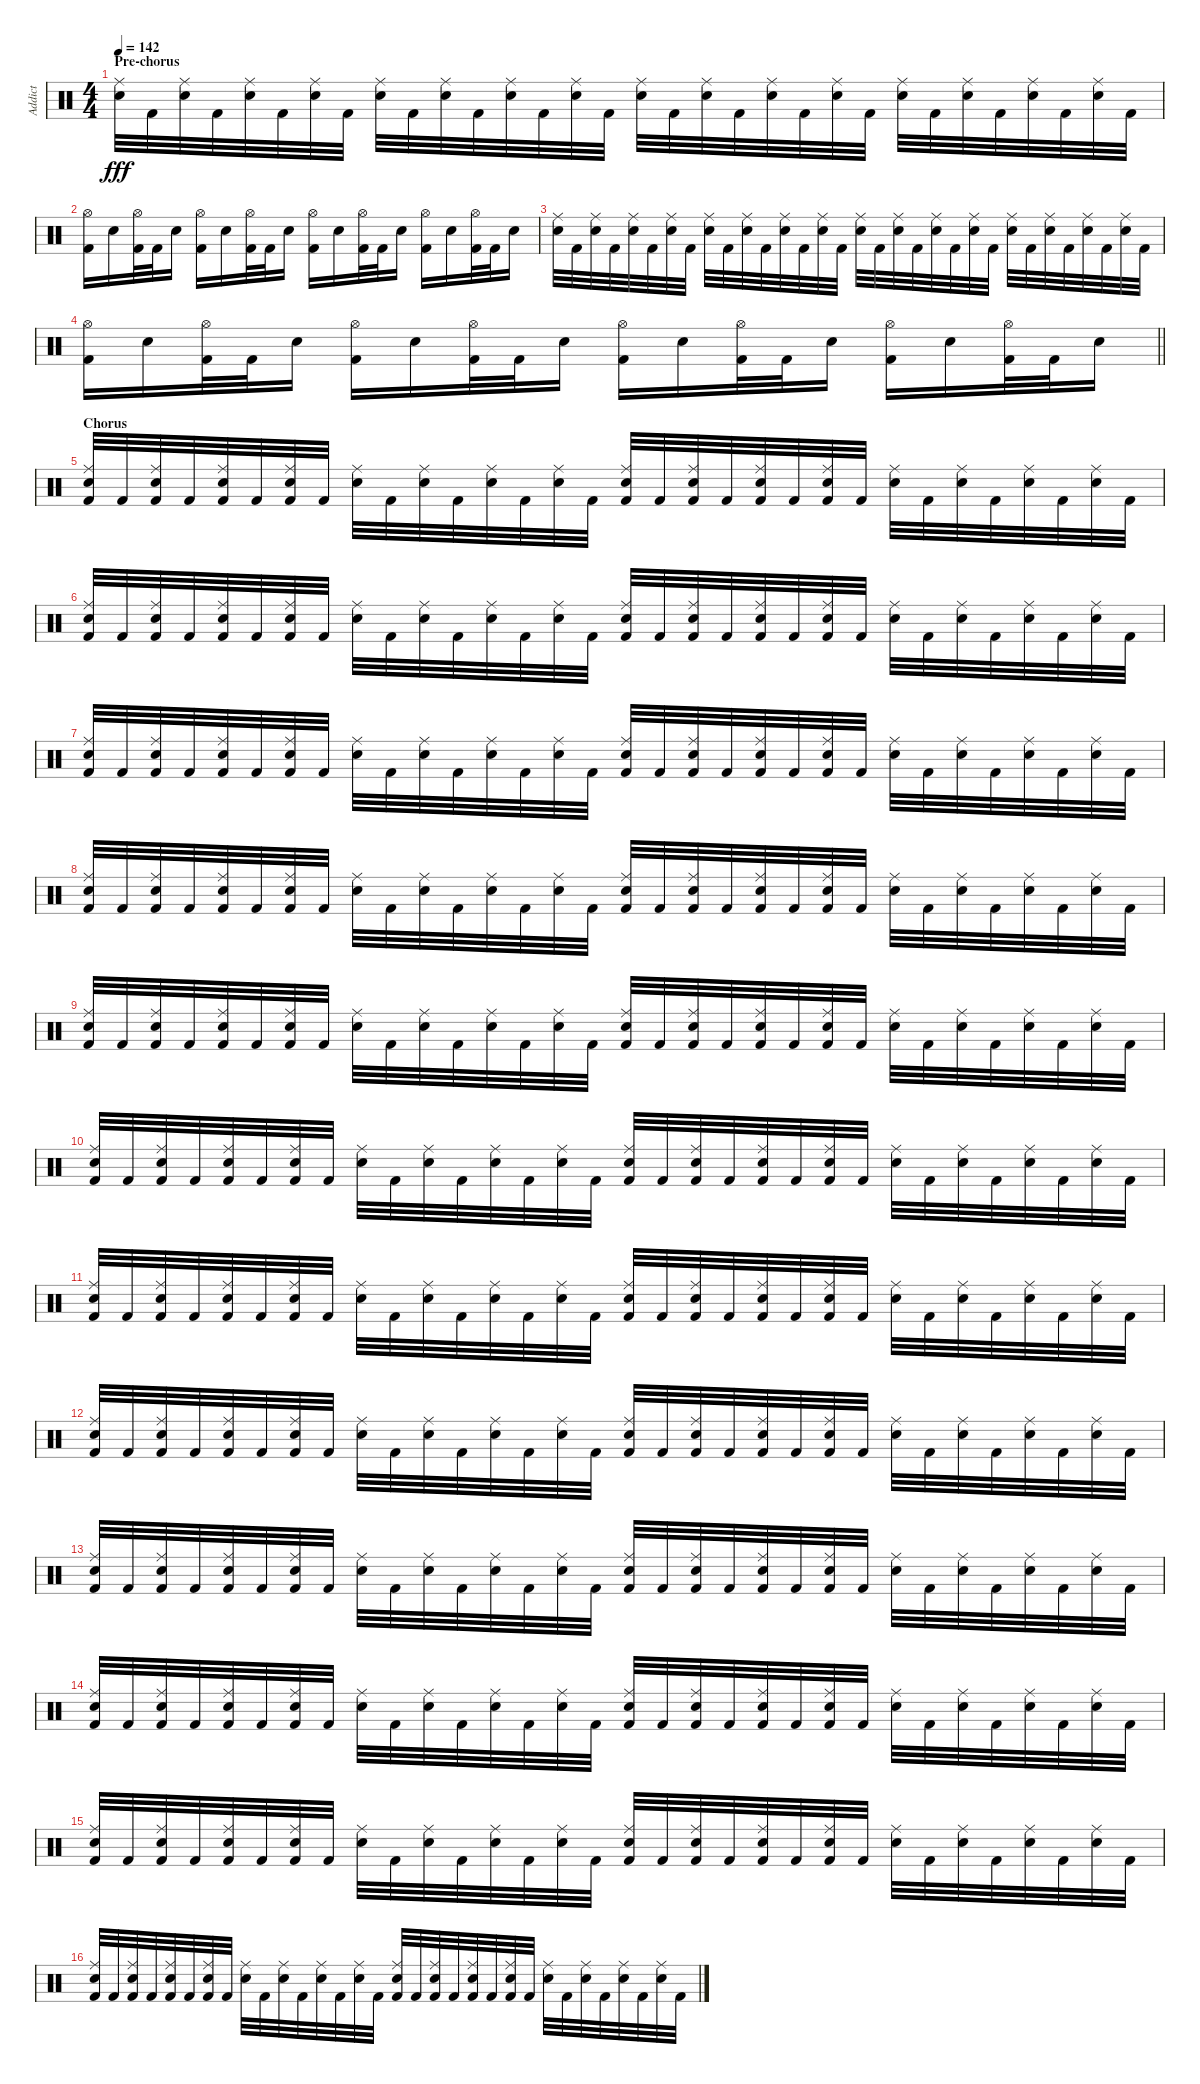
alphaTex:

\track ("Addict" "Addict") {instrument percussion}
\staff {score}
\articulation defaults
\ts (4 4)
\section ("" "Pre-chorus")
\tempo 142
\clef neutral
\ks c
("Snare (hit) 2" "Ride (middle)").32{dy fff} "Kick (hit) 2".32 ("Snare (hit) 2" "Ride (middle)").32 "Kick (hit) 2".32 ("Snare (hit) 2" "Ride (middle)").32 "Kick (hit) 2".32 ("Snare (hit) 2" "Ride (middle)").32 "Kick (hit) 2".32 ("Snare (hit) 2" "Ride (middle)").32 "Kick (hit) 2".32 ("Snare (hit) 2" "Ride (middle)").32 "Kick (hit) 2".32 ("Snare (hit) 2" "Ride (middle)").32 "Kick (hit) 2".32 ("Snare (hit) 2" "Ride (middle)").32 "Kick (hit) 2".32 ("Snare (hit) 2" "Ride (middle)").32 "Kick (hit) 2".32 ("Snare (hit) 2" "Ride (middle)").32 "Kick (hit) 2".32 ("Snare (hit) 2" "Ride (middle)").32 "Kick (hit) 2".32 ("Snare (hit) 2" "Ride (middle)").32 "Kick (hit) 2".32 ("Snare (hit) 2" "Ride (middle)").32 "Kick (hit) 2".32 ("Snare (hit) 2" "Ride (middle)").32 "Kick (hit) 2".32 ("Snare (hit) 2" "Ride (middle)").32 "Kick (hit) 2".32 ("Snare (hit) 2" "Ride (middle)").32 "Kick (hit) 2".32 |
("Kick (hit) 2" "Hi-Hat (open)").16 "Snare (hit) 2".16 ("Kick (hit) 2" "Hi-Hat (open)").32 "Kick (hit) 2".32 "Snare (hit) 2".16 ("Kick (hit) 2" "Hi-Hat (open)").16 "Snare (hit) 2".16 ("Kick (hit) 2" "Hi-Hat (open)").32 "Kick (hit) 2".32 "Snare (hit) 2".16 ("Kick (hit) 2" "Hi-Hat (open)").16 "Snare (hit) 2".16 ("Kick (hit) 2" "Hi-Hat (open)").32 "Kick (hit) 2".32 "Snare (hit) 2".16 ("Kick (hit) 2" "Hi-Hat (open)").16 "Snare (hit) 2".16 ("Kick (hit) 2" "Hi-Hat (open)").32 "Kick (hit) 2".32 "Snare (hit) 2".16 |
("Snare (hit) 2" "Ride (middle)").32 "Kick (hit) 2".32 ("Snare (hit) 2" "Ride (middle)").32 "Kick (hit) 2".32 ("Snare (hit) 2" "Ride (middle)").32 "Kick (hit) 2".32 ("Snare (hit) 2" "Ride (middle)").32 "Kick (hit) 2".32 ("Snare (hit) 2" "Ride (middle)").32 "Kick (hit) 2".32 ("Snare (hit) 2" "Ride (middle)").32 "Kick (hit) 2".32 ("Snare (hit) 2" "Ride (middle)").32 "Kick (hit) 2".32 ("Snare (hit) 2" "Ride (middle)").32 "Kick (hit) 2".32 ("Snare (hit) 2" "Ride (middle)").32 "Kick (hit) 2".32 ("Snare (hit) 2" "Ride (middle)").32 "Kick (hit) 2".32 ("Snare (hit) 2" "Ride (middle)").32 "Kick (hit) 2".32 ("Snare (hit) 2" "Ride (middle)").32 "Kick (hit) 2".32 ("Snare (hit) 2" "Ride (middle)").32 "Kick (hit) 2".32 ("Snare (hit) 2" "Ride (middle)").32 "Kick (hit) 2".32 ("Snare (hit) 2" "Ride (middle)").32 "Kick (hit) 2".32 ("Snare (hit) 2" "Ride (middle)").32 "Kick (hit) 2".32 |
\barLineRight lightlight
("Kick (hit) 2" "Hi-Hat (open)").16 "Snare (hit) 2".16 ("Kick (hit) 2" "Hi-Hat (open)").32 "Kick (hit) 2".32 "Snare (hit) 2".16 ("Kick (hit) 2" "Hi-Hat (open)").16 "Snare (hit) 2".16 ("Kick (hit) 2" "Hi-Hat (open)").32 "Kick (hit) 2".32 "Snare (hit) 2".16 ("Kick (hit) 2" "Hi-Hat (open)").16 "Snare (hit) 2".16 ("Kick (hit) 2" "Hi-Hat (open)").32 "Kick (hit) 2".32 "Snare (hit) 2".16 ("Kick (hit) 2" "Hi-Hat (open)").16 "Snare (hit) 2".16 ("Kick (hit) 2" "Hi-Hat (open)").32 "Kick (hit) 2".32 "Snare (hit) 2".16 |
\section ("" "Chorus")
("Kick (hit) 2" "Snare (hit) 2" "Ride (middle)").32 "Kick (hit) 2".32 ("Kick (hit) 2" "Snare (hit) 2" "Ride (middle)").32 "Kick (hit) 2".32 ("Kick (hit) 2" "Snare (hit) 2" "Ride (middle)").32 "Kick (hit) 2".32 ("Kick (hit) 2" "Snare (hit) 2" "Ride (middle)").32 "Kick (hit) 2".32 ("Snare (hit) 2" "Ride (middle)").32 "Kick (hit) 2".32 ("Snare (hit) 2" "Ride (middle)").32 "Kick (hit) 2".32 ("Snare (hit) 2" "Ride (middle)").32 "Kick (hit) 2".32 ("Snare (hit) 2" "Ride (middle)").32 "Kick (hit) 2".32 ("Kick (hit) 2" "Snare (hit) 2" "Ride (middle)").32 "Kick (hit) 2".32 ("Kick (hit) 2" "Snare (hit) 2" "Ride (middle)").32 "Kick (hit) 2".32 ("Kick (hit) 2" "Snare (hit) 2" "Ride (middle)").32 "Kick (hit) 2".32 ("Kick (hit) 2" "Snare (hit) 2" "Ride (middle)").32 "Kick (hit) 2".32 ("Snare (hit) 2" "Ride (middle)").32 "Kick (hit) 2".32 ("Snare (hit) 2" "Ride (middle)").32 "Kick (hit) 2".32 ("Snare (hit) 2" "Ride (middle)").32 "Kick (hit) 2".32 ("Snare (hit) 2" "Ride (middle)").32 "Kick (hit) 2".32 |
("Kick (hit) 2" "Snare (hit) 2" "Ride (middle)").32 "Kick (hit) 2".32 ("Kick (hit) 2" "Snare (hit) 2" "Ride (middle)").32 "Kick (hit) 2".32 ("Kick (hit) 2" "Snare (hit) 2" "Ride (middle)").32 "Kick (hit) 2".32 ("Kick (hit) 2" "Snare (hit) 2" "Ride (middle)").32 "Kick (hit) 2".32 ("Snare (hit) 2" "Ride (middle)").32 "Kick (hit) 2".32 ("Snare (hit) 2" "Ride (middle)").32 "Kick (hit) 2".32 ("Snare (hit) 2" "Ride (middle)").32 "Kick (hit) 2".32 ("Snare (hit) 2" "Ride (middle)").32 "Kick (hit) 2".32 ("Kick (hit) 2" "Snare (hit) 2" "Ride (middle)").32 "Kick (hit) 2".32 ("Kick (hit) 2" "Snare (hit) 2" "Ride (middle)").32 "Kick (hit) 2".32 ("Kick (hit) 2" "Snare (hit) 2" "Ride (middle)").32 "Kick (hit) 2".32 ("Kick (hit) 2" "Snare (hit) 2" "Ride (middle)").32 "Kick (hit) 2".32 ("Snare (hit) 2" "Ride (middle)").32 "Kick (hit) 2".32 ("Snare (hit) 2" "Ride (middle)").32 "Kick (hit) 2".32 ("Snare (hit) 2" "Ride (middle)").32 "Kick (hit) 2".32 ("Snare (hit) 2" "Ride (middle)").32 "Kick (hit) 2".32 |
("Kick (hit) 2" "Snare (hit) 2" "Ride (middle)").32 "Kick (hit) 2".32 ("Kick (hit) 2" "Snare (hit) 2" "Ride (middle)").32 "Kick (hit) 2".32 ("Kick (hit) 2" "Snare (hit) 2" "Ride (middle)").32 "Kick (hit) 2".32 ("Kick (hit) 2" "Snare (hit) 2" "Ride (middle)").32 "Kick (hit) 2".32 ("Snare (hit) 2" "Ride (middle)").32 "Kick (hit) 2".32 ("Snare (hit) 2" "Ride (middle)").32 "Kick (hit) 2".32 ("Snare (hit) 2" "Ride (middle)").32 "Kick (hit) 2".32 ("Snare (hit) 2" "Ride (middle)").32 "Kick (hit) 2".32 ("Kick (hit) 2" "Snare (hit) 2" "Ride (middle)").32 "Kick (hit) 2".32 ("Kick (hit) 2" "Snare (hit) 2" "Ride (middle)").32 "Kick (hit) 2".32 ("Kick (hit) 2" "Snare (hit) 2" "Ride (middle)").32 "Kick (hit) 2".32 ("Kick (hit) 2" "Snare (hit) 2" "Ride (middle)").32 "Kick (hit) 2".32 ("Snare (hit) 2" "Ride (middle)").32 "Kick (hit) 2".32 ("Snare (hit) 2" "Ride (middle)").32 "Kick (hit) 2".32 ("Snare (hit) 2" "Ride (middle)").32 "Kick (hit) 2".32 ("Snare (hit) 2" "Ride (middle)").32 "Kick (hit) 2".32 |
("Kick (hit) 2" "Snare (hit) 2" "Ride (middle)").32 "Kick (hit) 2".32 ("Kick (hit) 2" "Snare (hit) 2" "Ride (middle)").32 "Kick (hit) 2".32 ("Kick (hit) 2" "Snare (hit) 2" "Ride (middle)").32 "Kick (hit) 2".32 ("Kick (hit) 2" "Snare (hit) 2" "Ride (middle)").32 "Kick (hit) 2".32 ("Snare (hit) 2" "Ride (middle)").32 "Kick (hit) 2".32 ("Snare (hit) 2" "Ride (middle)").32 "Kick (hit) 2".32 ("Snare (hit) 2" "Ride (middle)").32 "Kick (hit) 2".32 ("Snare (hit) 2" "Ride (middle)").32 "Kick (hit) 2".32 ("Kick (hit) 2" "Snare (hit) 2" "Ride (middle)").32 "Kick (hit) 2".32 ("Kick (hit) 2" "Snare (hit) 2" "Ride (middle)").32 "Kick (hit) 2".32 ("Kick (hit) 2" "Snare (hit) 2" "Ride (middle)").32 "Kick (hit) 2".32 ("Kick (hit) 2" "Snare (hit) 2" "Ride (middle)").32 "Kick (hit) 2".32 ("Snare (hit) 2" "Ride (middle)").32 "Kick (hit) 2".32 ("Snare (hit) 2" "Ride (middle)").32 "Kick (hit) 2".32 ("Snare (hit) 2" "Ride (middle)").32 "Kick (hit) 2".32 ("Snare (hit) 2" "Ride (middle)").32 "Kick (hit) 2".32 |
("Kick (hit) 2" "Snare (hit) 2" "Ride (middle)").32 "Kick (hit) 2".32 ("Kick (hit) 2" "Snare (hit) 2" "Ride (middle)").32 "Kick (hit) 2".32 ("Kick (hit) 2" "Snare (hit) 2" "Ride (middle)").32 "Kick (hit) 2".32 ("Kick (hit) 2" "Snare (hit) 2" "Ride (middle)").32 "Kick (hit) 2".32 ("Snare (hit) 2" "Ride (middle)").32 "Kick (hit) 2".32 ("Snare (hit) 2" "Ride (middle)").32 "Kick (hit) 2".32 ("Snare (hit) 2" "Ride (middle)").32 "Kick (hit) 2".32 ("Snare (hit) 2" "Ride (middle)").32 "Kick (hit) 2".32 ("Kick (hit) 2" "Snare (hit) 2" "Ride (middle)").32 "Kick (hit) 2".32 ("Kick (hit) 2" "Snare (hit) 2" "Ride (middle)").32 "Kick (hit) 2".32 ("Kick (hit) 2" "Snare (hit) 2" "Ride (middle)").32 "Kick (hit) 2".32 ("Kick (hit) 2" "Snare (hit) 2" "Ride (middle)").32 "Kick (hit) 2".32 ("Snare (hit) 2" "Ride (middle)").32 "Kick (hit) 2".32 ("Snare (hit) 2" "Ride (middle)").32 "Kick (hit) 2".32 ("Snare (hit) 2" "Ride (middle)").32 "Kick (hit) 2".32 ("Snare (hit) 2" "Ride (middle)").32 "Kick (hit) 2".32 |
("Kick (hit) 2" "Snare (hit) 2" "Ride (middle)").32 "Kick (hit) 2".32 ("Kick (hit) 2" "Snare (hit) 2" "Ride (middle)").32 "Kick (hit) 2".32 ("Kick (hit) 2" "Snare (hit) 2" "Ride (middle)").32 "Kick (hit) 2".32 ("Kick (hit) 2" "Snare (hit) 2" "Ride (middle)").32 "Kick (hit) 2".32 ("Snare (hit) 2" "Ride (middle)").32 "Kick (hit) 2".32 ("Snare (hit) 2" "Ride (middle)").32 "Kick (hit) 2".32 ("Snare (hit) 2" "Ride (middle)").32 "Kick (hit) 2".32 ("Snare (hit) 2" "Ride (middle)").32 "Kick (hit) 2".32 ("Kick (hit) 2" "Snare (hit) 2" "Ride (middle)").32 "Kick (hit) 2".32 ("Kick (hit) 2" "Snare (hit) 2" "Ride (middle)").32 "Kick (hit) 2".32 ("Kick (hit) 2" "Snare (hit) 2" "Ride (middle)").32 "Kick (hit) 2".32 ("Kick (hit) 2" "Snare (hit) 2" "Ride (middle)").32 "Kick (hit) 2".32 ("Snare (hit) 2" "Ride (middle)").32 "Kick (hit) 2".32 ("Snare (hit) 2" "Ride (middle)").32 "Kick (hit) 2".32 ("Snare (hit) 2" "Ride (middle)").32 "Kick (hit) 2".32 ("Snare (hit) 2" "Ride (middle)").32 "Kick (hit) 2".32 |
("Kick (hit) 2" "Snare (hit) 2" "Ride (middle)").32 "Kick (hit) 2".32 ("Kick (hit) 2" "Snare (hit) 2" "Ride (middle)").32 "Kick (hit) 2".32 ("Kick (hit) 2" "Snare (hit) 2" "Ride (middle)").32 "Kick (hit) 2".32 ("Kick (hit) 2" "Snare (hit) 2" "Ride (middle)").32 "Kick (hit) 2".32 ("Snare (hit) 2" "Ride (middle)").32 "Kick (hit) 2".32 ("Snare (hit) 2" "Ride (middle)").32 "Kick (hit) 2".32 ("Snare (hit) 2" "Ride (middle)").32 "Kick (hit) 2".32 ("Snare (hit) 2" "Ride (middle)").32 "Kick (hit) 2".32 ("Kick (hit) 2" "Snare (hit) 2" "Ride (middle)").32 "Kick (hit) 2".32 ("Kick (hit) 2" "Snare (hit) 2" "Ride (middle)").32 "Kick (hit) 2".32 ("Kick (hit) 2" "Snare (hit) 2" "Ride (middle)").32 "Kick (hit) 2".32 ("Kick (hit) 2" "Snare (hit) 2" "Ride (middle)").32 "Kick (hit) 2".32 ("Snare (hit) 2" "Ride (middle)").32 "Kick (hit) 2".32 ("Snare (hit) 2" "Ride (middle)").32 "Kick (hit) 2".32 ("Snare (hit) 2" "Ride (middle)").32 "Kick (hit) 2".32 ("Snare (hit) 2" "Ride (middle)").32 "Kick (hit) 2".32 |
("Kick (hit) 2" "Snare (hit) 2" "Ride (middle)").32 "Kick (hit) 2".32 ("Kick (hit) 2" "Snare (hit) 2" "Ride (middle)").32 "Kick (hit) 2".32 ("Kick (hit) 2" "Snare (hit) 2" "Ride (middle)").32 "Kick (hit) 2".32 ("Kick (hit) 2" "Snare (hit) 2" "Ride (middle)").32 "Kick (hit) 2".32 ("Snare (hit) 2" "Ride (middle)").32 "Kick (hit) 2".32 ("Snare (hit) 2" "Ride (middle)").32 "Kick (hit) 2".32 ("Snare (hit) 2" "Ride (middle)").32 "Kick (hit) 2".32 ("Snare (hit) 2" "Ride (middle)").32 "Kick (hit) 2".32 ("Kick (hit) 2" "Snare (hit) 2" "Ride (middle)").32 "Kick (hit) 2".32 ("Kick (hit) 2" "Snare (hit) 2" "Ride (middle)").32 "Kick (hit) 2".32 ("Kick (hit) 2" "Snare (hit) 2" "Ride (middle)").32 "Kick (hit) 2".32 ("Kick (hit) 2" "Snare (hit) 2" "Ride (middle)").32 "Kick (hit) 2".32 ("Snare (hit) 2" "Ride (middle)").32 "Kick (hit) 2".32 ("Snare (hit) 2" "Ride (middle)").32 "Kick (hit) 2".32 ("Snare (hit) 2" "Ride (middle)").32 "Kick (hit) 2".32 ("Snare (hit) 2" "Ride (middle)").32 "Kick (hit) 2".32 |
("Kick (hit) 2" "Snare (hit) 2" "Ride (middle)").32 "Kick (hit) 2".32 ("Kick (hit) 2" "Snare (hit) 2" "Ride (middle)").32 "Kick (hit) 2".32 ("Kick (hit) 2" "Snare (hit) 2" "Ride (middle)").32 "Kick (hit) 2".32 ("Kick (hit) 2" "Snare (hit) 2" "Ride (middle)").32 "Kick (hit) 2".32 ("Snare (hit) 2" "Ride (middle)").32 "Kick (hit) 2".32 ("Snare (hit) 2" "Ride (middle)").32 "Kick (hit) 2".32 ("Snare (hit) 2" "Ride (middle)").32 "Kick (hit) 2".32 ("Snare (hit) 2" "Ride (middle)").32 "Kick (hit) 2".32 ("Kick (hit) 2" "Snare (hit) 2" "Ride (middle)").32 "Kick (hit) 2".32 ("Kick (hit) 2" "Snare (hit) 2" "Ride (middle)").32 "Kick (hit) 2".32 ("Kick (hit) 2" "Snare (hit) 2" "Ride (middle)").32 "Kick (hit) 2".32 ("Kick (hit) 2" "Snare (hit) 2" "Ride (middle)").32 "Kick (hit) 2".32 ("Snare (hit) 2" "Ride (middle)").32 "Kick (hit) 2".32 ("Snare (hit) 2" "Ride (middle)").32 "Kick (hit) 2".32 ("Snare (hit) 2" "Ride (middle)").32 "Kick (hit) 2".32 ("Snare (hit) 2" "Ride (middle)").32 "Kick (hit) 2".32 |
("Kick (hit) 2" "Snare (hit) 2" "Ride (middle)").32 "Kick (hit) 2".32 ("Kick (hit) 2" "Snare (hit) 2" "Ride (middle)").32 "Kick (hit) 2".32 ("Kick (hit) 2" "Snare (hit) 2" "Ride (middle)").32 "Kick (hit) 2".32 ("Kick (hit) 2" "Snare (hit) 2" "Ride (middle)").32 "Kick (hit) 2".32 ("Snare (hit) 2" "Ride (middle)").32 "Kick (hit) 2".32 ("Snare (hit) 2" "Ride (middle)").32 "Kick (hit) 2".32 ("Snare (hit) 2" "Ride (middle)").32 "Kick (hit) 2".32 ("Snare (hit) 2" "Ride (middle)").32 "Kick (hit) 2".32 ("Kick (hit) 2" "Snare (hit) 2" "Ride (middle)").32 "Kick (hit) 2".32 ("Kick (hit) 2" "Snare (hit) 2" "Ride (middle)").32 "Kick (hit) 2".32 ("Kick (hit) 2" "Snare (hit) 2" "Ride (middle)").32 "Kick (hit) 2".32 ("Kick (hit) 2" "Snare (hit) 2" "Ride (middle)").32 "Kick (hit) 2".32 ("Snare (hit) 2" "Ride (middle)").32 "Kick (hit) 2".32 ("Snare (hit) 2" "Ride (middle)").32 "Kick (hit) 2".32 ("Snare (hit) 2" "Ride (middle)").32 "Kick (hit) 2".32 ("Snare (hit) 2" "Ride (middle)").32 "Kick (hit) 2".32 |
("Kick (hit) 2" "Snare (hit) 2" "Ride (middle)").32 "Kick (hit) 2".32 ("Kick (hit) 2" "Snare (hit) 2" "Ride (middle)").32 "Kick (hit) 2".32 ("Kick (hit) 2" "Snare (hit) 2" "Ride (middle)").32 "Kick (hit) 2".32 ("Kick (hit) 2" "Snare (hit) 2" "Ride (middle)").32 "Kick (hit) 2".32 ("Snare (hit) 2" "Ride (middle)").32 "Kick (hit) 2".32 ("Snare (hit) 2" "Ride (middle)").32 "Kick (hit) 2".32 ("Snare (hit) 2" "Ride (middle)").32 "Kick (hit) 2".32 ("Snare (hit) 2" "Ride (middle)").32 "Kick (hit) 2".32 ("Kick (hit) 2" "Snare (hit) 2" "Ride (middle)").32 "Kick (hit) 2".32 ("Kick (hit) 2" "Snare (hit) 2" "Ride (middle)").32 "Kick (hit) 2".32 ("Kick (hit) 2" "Snare (hit) 2" "Ride (middle)").32 "Kick (hit) 2".32 ("Kick (hit) 2" "Snare (hit) 2" "Ride (middle)").32 "Kick (hit) 2".32 ("Snare (hit) 2" "Ride (middle)").32 "Kick (hit) 2".32 ("Snare (hit) 2" "Ride (middle)").32 "Kick (hit) 2".32 ("Snare (hit) 2" "Ride (middle)").32 "Kick (hit) 2".32 ("Snare (hit) 2" "Ride (middle)").32 "Kick (hit) 2".32 |
("Kick (hit) 2" "Snare (hit) 2" "Ride (middle)").32 "Kick (hit) 2".32 ("Kick (hit) 2" "Snare (hit) 2" "Ride (middle)").32 "Kick (hit) 2".32 ("Kick (hit) 2" "Snare (hit) 2" "Ride (middle)").32 "Kick (hit) 2".32 ("Kick (hit) 2" "Snare (hit) 2" "Ride (middle)").32 "Kick (hit) 2".32 ("Snare (hit) 2" "Ride (middle)").32 "Kick (hit) 2".32 ("Snare (hit) 2" "Ride (middle)").32 "Kick (hit) 2".32 ("Snare (hit) 2" "Ride (middle)").32 "Kick (hit) 2".32 ("Snare (hit) 2" "Ride (middle)").32 "Kick (hit) 2".32 ("Kick (hit) 2" "Snare (hit) 2" "Ride (middle)").32 "Kick (hit) 2".32 ("Kick (hit) 2" "Snare (hit) 2" "Ride (middle)").32 "Kick (hit) 2".32 ("Kick (hit) 2" "Snare (hit) 2" "Ride (middle)").32 "Kick (hit) 2".32 ("Kick (hit) 2" "Snare (hit) 2" "Ride (middle)").32 "Kick (hit) 2".32 ("Snare (hit) 2" "Ride (middle)").32 "Kick (hit) 2".32 ("Snare (hit) 2" "Ride (middle)").32 "Kick (hit) 2".32 ("Snare (hit) 2" "Ride (middle)").32 "Kick (hit) 2".32 ("Snare (hit) 2" "Ride (middle)").32 "Kick (hit) 2".32
